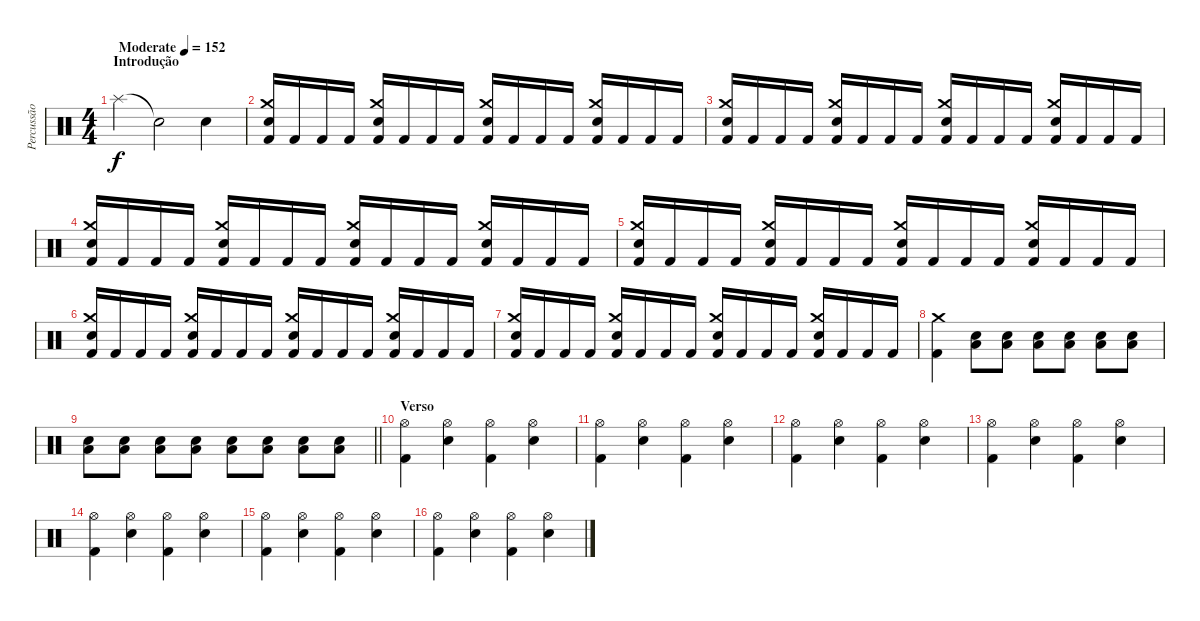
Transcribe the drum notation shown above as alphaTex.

\track ("Percussão" "Percussão") {instrument percussion}
\staff {score}
\articulation defaults
\ts (4 4)
\section ("" "Introdução")
\tempo (152 "Moderate")
\clef neutral
\ks c "Splash (hit)".4{dy f} "Snare (hit)"{t}.2 "Electric Snare (hit)".4
|
("Crash medium (hit)" "Electric Snare (hit)" "Kick (hit) 2").16 "Kick (hit) 2".16 "Kick (hit) 2".16 "Kick (hit) 2".16 ("Crash medium (hit)" "Electric Snare (hit)" "Kick (hit) 2").16 "Kick (hit) 2".16 "Kick (hit) 2".16 "Kick (hit) 2".16 ("Crash medium (hit)" "Electric Snare (hit)" "Kick (hit) 2").16 "Kick (hit) 2".16 "Kick (hit) 2".16 "Kick (hit) 2".16 ("Crash medium (hit)" "Electric Snare (hit)" "Kick (hit) 2").16 "Kick (hit) 2".16 "Kick (hit) 2".16 "Kick (hit) 2".16 |
("Crash medium (hit)" "Electric Snare (hit)" "Kick (hit) 2").16 "Kick (hit) 2".16 "Kick (hit) 2".16 "Kick (hit) 2".16 ("Crash medium (hit)" "Electric Snare (hit)" "Kick (hit) 2").16 "Kick (hit) 2".16 "Kick (hit) 2".16 "Kick (hit) 2".16 ("Crash medium (hit)" "Electric Snare (hit)" "Kick (hit) 2").16 "Kick (hit) 2".16 "Kick (hit) 2".16 "Kick (hit) 2".16 ("Crash medium (hit)" "Electric Snare (hit)" "Kick (hit) 2").16 "Kick (hit) 2".16 "Kick (hit) 2".16 "Kick (hit) 2".16 |
("Crash medium (hit)" "Electric Snare (hit)" "Kick (hit) 2").16 "Kick (hit) 2".16 "Kick (hit) 2".16 "Kick (hit) 2".16 ("Crash medium (hit)" "Electric Snare (hit)" "Kick (hit) 2").16 "Kick (hit) 2".16 "Kick (hit) 2".16 "Kick (hit) 2".16 ("Crash medium (hit)" "Electric Snare (hit)" "Kick (hit) 2").16 "Kick (hit) 2".16 "Kick (hit) 2".16 "Kick (hit) 2".16 ("Crash medium (hit)" "Electric Snare (hit)" "Kick (hit) 2").16 "Kick (hit) 2".16 "Kick (hit) 2".16 "Kick (hit) 2".16 |
("Crash medium (hit)" "Electric Snare (hit)" "Kick (hit) 2").16 "Kick (hit) 2".16 "Kick (hit) 2".16 "Kick (hit) 2".16 ("Crash medium (hit)" "Electric Snare (hit)" "Kick (hit) 2").16 "Kick (hit) 2".16 "Kick (hit) 2".16 "Kick (hit) 2".16 ("Crash medium (hit)" "Electric Snare (hit)" "Kick (hit) 2").16 "Kick (hit) 2".16 "Kick (hit) 2".16 "Kick (hit) 2".16 ("Crash medium (hit)" "Electric Snare (hit)" "Kick (hit) 2").16 "Kick (hit) 2".16 "Kick (hit) 2".16 "Kick (hit) 2".16 |
("Crash medium (hit)" "Electric Snare (hit)" "Kick (hit) 2").16 "Kick (hit) 2".16 "Kick (hit) 2".16 "Kick (hit) 2".16 ("Crash medium (hit)" "Electric Snare (hit)" "Kick (hit) 2").16 "Kick (hit) 2".16 "Kick (hit) 2".16 "Kick (hit) 2".16 ("Crash medium (hit)" "Electric Snare (hit)" "Kick (hit) 2").16 "Kick (hit) 2".16 "Kick (hit) 2".16 "Kick (hit) 2".16 ("Crash medium (hit)" "Electric Snare (hit)" "Kick (hit) 2").16 "Kick (hit) 2".16 "Kick (hit) 2".16 "Kick (hit) 2".16 |
("Crash medium (hit)" "Electric Snare (hit)" "Kick (hit) 2").16 "Kick (hit) 2".16 "Kick (hit) 2".16 "Kick (hit) 2".16 ("Crash medium (hit)" "Electric Snare (hit)" "Kick (hit) 2").16 "Kick (hit) 2".16 "Kick (hit) 2".16 "Kick (hit) 2".16 ("Crash medium (hit)" "Electric Snare (hit)" "Kick (hit) 2").16 "Kick (hit) 2".16 "Kick (hit) 2".16 "Kick (hit) 2".16 ("Crash medium (hit)" "Electric Snare (hit)" "Kick (hit) 2").16 "Kick (hit) 2".16 "Kick (hit) 2".16 "Kick (hit) 2".16 |
("Crash medium (hit)" "Kick (hit) 2").4 ("Electric Snare (hit)" "Low Floor Tom (hit)").8 ("Electric Snare (hit)" "Low Floor Tom (hit)").8 ("Electric Snare (hit)" "Low Floor Tom (hit)").8 ("Electric Snare (hit)" "Low Floor Tom (hit)").8 ("Electric Snare (hit)" "Low Floor Tom (hit)").8 ("Electric Snare (hit)" "Low Floor Tom (hit)").8 |
\barLineRight lightlight
("Electric Snare (hit)" "Low Floor Tom (hit)").8 ("Electric Snare (hit)" "Low Floor Tom (hit)").8 ("Electric Snare (hit)" "Low Floor Tom (hit)").8 ("Electric Snare (hit)" "Low Floor Tom (hit)").8 ("Electric Snare (hit)" "Low Floor Tom (hit)").8 ("Electric Snare (hit)" "Low Floor Tom (hit)").8 ("Electric Snare (hit)" "Low Floor Tom (hit)").8 ("Electric Snare (hit)" "Low Floor Tom (hit)").8 |
\section ("" "Verso")
("Hi-Hat (open)" "Kick (hit) 2").4 ("Hi-Hat (open)" "Electric Snare (hit)").4 ("Hi-Hat (open)" "Kick (hit) 2").4 ("Hi-Hat (open)" "Electric Snare (hit)").4 |
("Hi-Hat (open)" "Kick (hit) 2").4 ("Hi-Hat (open)" "Electric Snare (hit)").4 ("Hi-Hat (open)" "Kick (hit) 2").4 ("Hi-Hat (open)" "Electric Snare (hit)").4 |
("Hi-Hat (open)" "Kick (hit) 2").4 ("Hi-Hat (open)" "Electric Snare (hit)").4 ("Hi-Hat (open)" "Kick (hit) 2").4 ("Hi-Hat (open)" "Electric Snare (hit)").4 |
("Hi-Hat (open)" "Kick (hit) 2").4 ("Hi-Hat (open)" "Electric Snare (hit)").4 ("Hi-Hat (open)" "Kick (hit) 2").4 ("Hi-Hat (open)" "Electric Snare (hit)").4 |
("Hi-Hat (open)" "Kick (hit) 2").4 ("Hi-Hat (open)" "Electric Snare (hit)").4 ("Hi-Hat (open)" "Kick (hit) 2").4 ("Hi-Hat (open)" "Electric Snare (hit)").4 |
("Hi-Hat (open)" "Kick (hit) 2").4 ("Hi-Hat (open)" "Electric Snare (hit)").4 ("Hi-Hat (open)" "Kick (hit) 2").4 ("Hi-Hat (open)" "Electric Snare (hit)").4 |
("Hi-Hat (open)" "Kick (hit) 2").4 ("Hi-Hat (open)" "Electric Snare (hit)").4 ("Hi-Hat (open)" "Kick (hit) 2").4 ("Hi-Hat (open)" "Electric Snare (hit)").4
